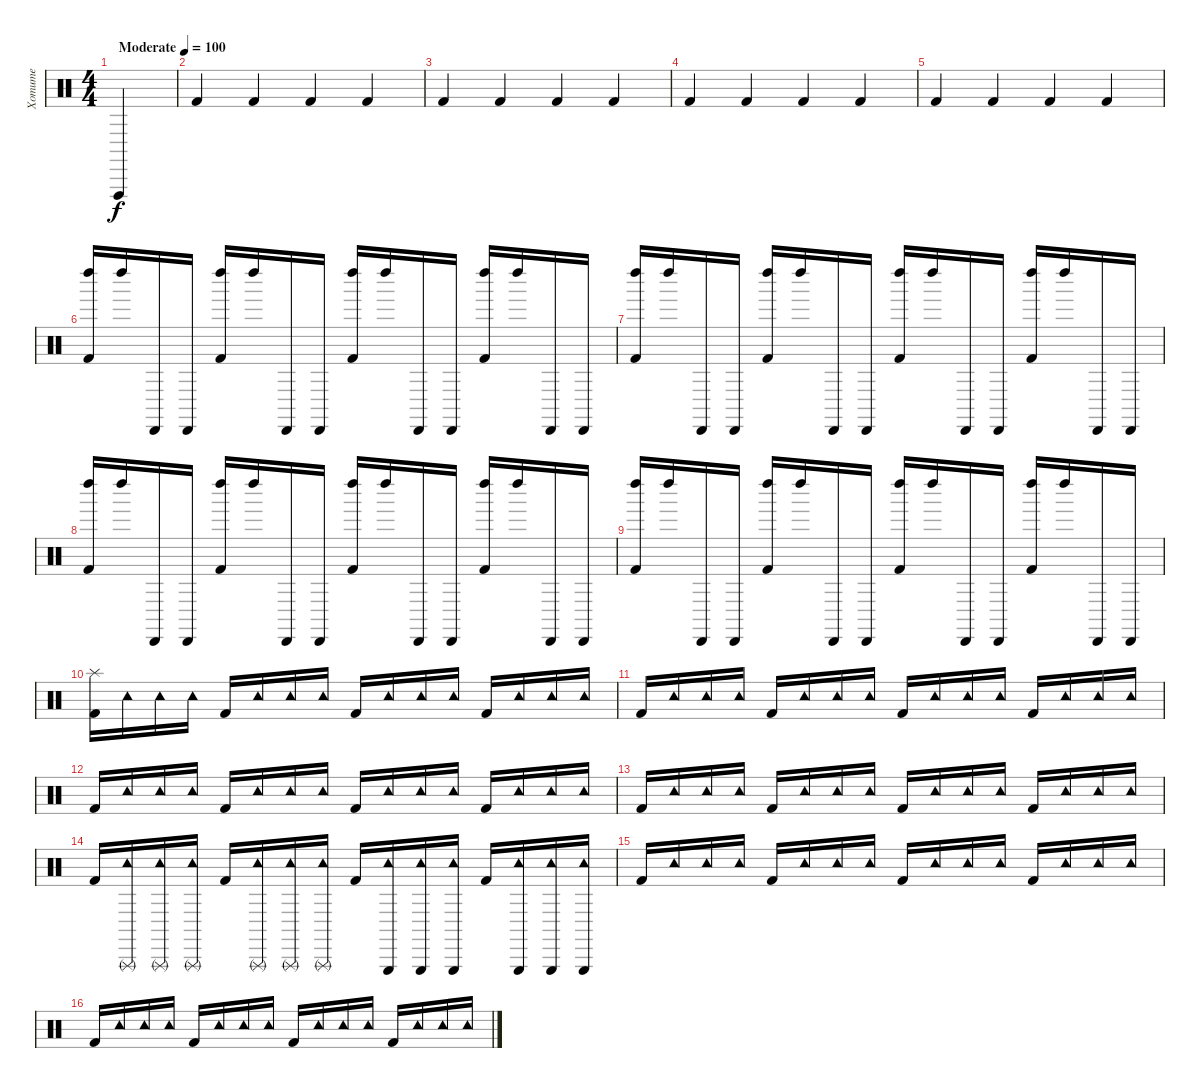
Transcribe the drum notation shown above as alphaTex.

\track ("Хотите" "Хотите") {instrument percussion}
\staff {score}
\articulation defaults
\ts (4 4)
\tempo (100 "Moderate")
\clef neutral
\ks c "Vibraslap (hit)".4{dy f}
|
"Kick (hit) 2".4 "Kick (hit) 2".4 "Kick (hit) 2".4 "Kick (hit) 2".4 |
"Kick (hit) 2".4 "Kick (hit) 2".4 "Kick (hit) 2".4 "Kick (hit) 2".4 |
"Kick (hit) 2".4 "Kick (hit) 2".4 "Kick (hit) 2".4 "Kick (hit) 2".4 |
"Kick (hit) 2".4 "Kick (hit) 2".4 "Kick (hit) 2".4 "Kick (hit) 2".4 |
("Kick (hit) 2" "Left Maraca (hit)").16 "Left Maraca (hit)".16 "Cabasa (hit)".16 "Cabasa (hit)".16 ("Kick (hit) 2" "Left Maraca (hit)").16 "Left Maraca (hit)".16 "Cabasa (hit)".16 "Cabasa (hit)".16 ("Kick (hit) 2" "Left Maraca (hit)").16 "Left Maraca (hit)".16 "Cabasa (hit)".16 "Cabasa (hit)".16 ("Kick (hit) 2" "Left Maraca (hit)").16 "Left Maraca (hit)".16 "Cabasa (hit)".16 "Cabasa (hit)".16 |
("Kick (hit) 2" "Left Maraca (hit)").16 "Left Maraca (hit)".16 "Cabasa (hit)".16 "Cabasa (hit)".16 ("Kick (hit) 2" "Left Maraca (hit)").16 "Left Maraca (hit)".16 "Cabasa (hit)".16 "Cabasa (hit)".16 ("Kick (hit) 2" "Left Maraca (hit)").16 "Left Maraca (hit)".16 "Cabasa (hit)".16 "Cabasa (hit)".16 ("Kick (hit) 2" "Left Maraca (hit)").16 "Left Maraca (hit)".16 "Cabasa (hit)".16 "Cabasa (hit)".16 |
("Kick (hit) 2" "Left Maraca (hit)").16 "Left Maraca (hit)".16 "Cabasa (hit)".16 "Cabasa (hit)".16 ("Kick (hit) 2" "Left Maraca (hit)").16 "Left Maraca (hit)".16 "Cabasa (hit)".16 "Cabasa (hit)".16 ("Kick (hit) 2" "Left Maraca (hit)").16 "Left Maraca (hit)".16 "Cabasa (hit)".16 "Cabasa (hit)".16 ("Kick (hit) 2" "Left Maraca (hit)").16 "Left Maraca (hit)".16 "Cabasa (hit)".16 "Cabasa (hit)".16 |
("Kick (hit) 2" "Left Maraca (hit)").16 "Left Maraca (hit)".16 "Cabasa (hit)".16 "Cabasa (hit)".16 ("Kick (hit) 2" "Left Maraca (hit)").16 "Left Maraca (hit)".16 "Cabasa (hit)".16 "Cabasa (hit)".16 ("Kick (hit) 2" "Left Maraca (hit)").16 "Left Maraca (hit)".16 "Cabasa (hit)".16 "Cabasa (hit)".16 ("Kick (hit) 2" "Left Maraca (hit)").16 "Left Maraca (hit)".16 "Cabasa (hit)".16 "Cabasa (hit)".16 |
("Kick (hit) 2" "Splash (hit)").16 "Tambourine (hit)".16 "Tambourine (hit)".16 "Tambourine (hit)".16 "Kick (hit) 2".16 "Tambourine (hit)".16 "Tambourine (hit)".16 "Tambourine (hit)".16 "Kick (hit) 2".16 "Tambourine (hit)".16 "Tambourine (hit)".16 "Tambourine (hit)".16 "Kick (hit) 2".16 "Tambourine (hit)".16 "Tambourine (hit)".16 "Tambourine (hit)".16 |
"Kick (hit) 2".16 "Tambourine (hit)".16 "Tambourine (hit)".16 "Tambourine (hit)".16 "Kick (hit) 2".16 "Tambourine (hit)".16 "Tambourine (hit)".16 "Tambourine (hit)".16 "Kick (hit) 2".16 "Tambourine (hit)".16 "Tambourine (hit)".16 "Tambourine (hit)".16 "Kick (hit) 2".16 "Tambourine (hit)".16 "Tambourine (hit)".16 "Tambourine (hit)".16 |
"Kick (hit) 2".16 "Tambourine (hit)".16 "Tambourine (hit)".16 "Tambourine (hit)".16 "Kick (hit) 2".16 "Tambourine (hit)".16 "Tambourine (hit)".16 "Tambourine (hit)".16 "Kick (hit) 2".16 "Tambourine (hit)".16 "Tambourine (hit)".16 "Tambourine (hit)".16 "Kick (hit) 2".16 "Tambourine (hit)".16 "Tambourine (hit)".16 "Tambourine (hit)".16 |
"Kick (hit) 2".16 "Tambourine (hit)".16 "Tambourine (hit)".16 "Tambourine (hit)".16 "Kick (hit) 2".16 "Tambourine (hit)".16 "Tambourine (hit)".16 "Tambourine (hit)".16 "Kick (hit) 2".16 "Tambourine (hit)".16 "Tambourine (hit)".16 "Tambourine (hit)".16 "Kick (hit) 2".16 "Tambourine (hit)".16 "Tambourine (hit)".16 "Tambourine (hit)".16 |
"Kick (hit) 2".16 ("Tambourine (hit)" "Triangle (rnute)").16 ("Tambourine (hit)" "Triangle (rnute)").16 ("Tambourine (hit)" "Triangle (rnute)").16 "Kick (hit) 2".16 ("Tambourine (hit)" "Triangle (rnute)").16 ("Tambourine (hit)" "Triangle (rnute)").16 ("Tambourine (hit)" "Triangle (rnute)").16 "Kick (hit) 2".16 ("Tambourine (hit)" "Triangle (hit)").16 ("Tambourine (hit)" "Triangle (hit)").16 ("Tambourine (hit)" "Triangle (hit)").16 "Kick (hit) 2".16 ("Tambourine (hit)" "Triangle (hit)").16 ("Tambourine (hit)" "Triangle (hit)").16 ("Tambourine (hit)" "Triangle (hit)").16 |
"Kick (hit) 2".16 "Tambourine (hit)".16 "Tambourine (hit)".16 "Tambourine (hit)".16 "Kick (hit) 2".16 "Tambourine (hit)".16 "Tambourine (hit)".16 "Tambourine (hit)".16 "Kick (hit) 2".16 "Tambourine (hit)".16 "Tambourine (hit)".16 "Tambourine (hit)".16 "Kick (hit) 2".16 "Tambourine (hit)".16 "Tambourine (hit)".16 "Tambourine (hit)".16 |
"Kick (hit) 2".16 "Tambourine (hit)".16 "Tambourine (hit)".16 "Tambourine (hit)".16 "Kick (hit) 2".16 "Tambourine (hit)".16 "Tambourine (hit)".16 "Tambourine (hit)".16 "Kick (hit) 2".16 "Tambourine (hit)".16 "Tambourine (hit)".16 "Tambourine (hit)".16 "Kick (hit) 2".16 "Tambourine (hit)".16 "Tambourine (hit)".16 "Tambourine (hit)".16
